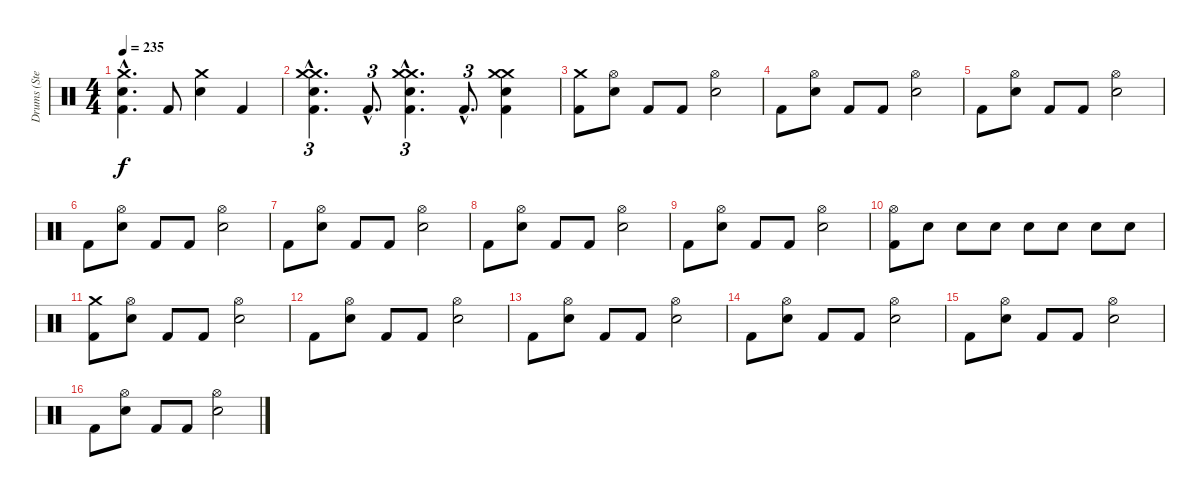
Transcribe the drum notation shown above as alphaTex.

\track ("Drums (Steve Jocz)" "Drums (Ste") {instrument percussion}
\staff {score}
\articulation defaults
\ts (4 4)
\tempo 235
\clef neutral
\ks c
("Crash medium (hit)"{hac} "Electric Snare (hit)"{hac} "Kick (hit) 2"{hac}).4{d dy f} "Kick (hit) 2".8 ("Crash medium (hit)" "Electric Snare (hit)").4 "Kick (hit) 2".4 |
("Crash medium (hit)"{hac} "Crash medium (hit)"{hac} "Electric Snare (hit)"{hac} "Kick (hit) 2"{hac}).4{d tu (3 2)} "Kick (hit) 2"{hac}.8{d tu (3 2)} ("Crash medium (hit)"{hac} "Crash medium (hit)"{hac} "Electric Snare (hit)"{hac} "Kick (hit) 2"{hac}).4{d tu (3 2)} "Kick (hit) 2"{hac}.8{d tu (3 2)} ("Crash medium (hit)" "Crash medium (hit)" "Electric Snare (hit)" "Kick (hit) 2").4 |
("Crash medium (hit)" "Kick (hit) 2").8 ("Hi-Hat (open)" "Electric Snare (hit)").8 "Kick (hit) 2".8 "Kick (hit) 2".8 ("Hi-Hat (open)" "Electric Snare (hit)").2 |
"Kick (hit) 2".8 ("Hi-Hat (open)" "Electric Snare (hit)").8 "Kick (hit) 2".8 "Kick (hit) 2".8 ("Hi-Hat (open)" "Electric Snare (hit)").2 |
"Kick (hit) 2".8 ("Hi-Hat (open)" "Electric Snare (hit)").8 "Kick (hit) 2".8 "Kick (hit) 2".8 ("Hi-Hat (open)" "Electric Snare (hit)").2 |
"Kick (hit) 2".8 ("Hi-Hat (open)" "Electric Snare (hit)").8 "Kick (hit) 2".8 "Kick (hit) 2".8 ("Hi-Hat (open)" "Electric Snare (hit)").2 |
"Kick (hit) 2".8 ("Hi-Hat (open)" "Electric Snare (hit)").8 "Kick (hit) 2".8 "Kick (hit) 2".8 ("Hi-Hat (open)" "Electric Snare (hit)").2 |
"Kick (hit) 2".8 ("Hi-Hat (open)" "Electric Snare (hit)").8 "Kick (hit) 2".8 "Kick (hit) 2".8 ("Hi-Hat (open)" "Electric Snare (hit)").2 |
"Kick (hit) 2".8 ("Hi-Hat (open)" "Electric Snare (hit)").8 "Kick (hit) 2".8 "Kick (hit) 2".8 ("Hi-Hat (open)" "Electric Snare (hit)").2 |
("Hi-Hat (open)" "Kick (hit) 2").8 "Electric Snare (hit)".8 "Electric Snare (hit)".8 "Electric Snare (hit)".8 "Electric Snare (hit)".8 "Electric Snare (hit)".8 "Electric Snare (hit)".8 "Electric Snare (hit)".8 |
("Crash medium (hit)" "Kick (hit) 2").8 ("Hi-Hat (open)" "Electric Snare (hit)").8 "Kick (hit) 2".8 "Kick (hit) 2".8 ("Hi-Hat (open)" "Electric Snare (hit)").2 |
"Kick (hit) 2".8 ("Hi-Hat (open)" "Electric Snare (hit)").8 "Kick (hit) 2".8 "Kick (hit) 2".8 ("Hi-Hat (open)" "Electric Snare (hit)").2 |
"Kick (hit) 2".8 ("Hi-Hat (open)" "Electric Snare (hit)").8 "Kick (hit) 2".8 "Kick (hit) 2".8 ("Hi-Hat (open)" "Electric Snare (hit)").2 |
"Kick (hit) 2".8 ("Hi-Hat (open)" "Electric Snare (hit)").8 "Kick (hit) 2".8 "Kick (hit) 2".8 ("Hi-Hat (open)" "Electric Snare (hit)").2 |
"Kick (hit) 2".8 ("Hi-Hat (open)" "Electric Snare (hit)").8 "Kick (hit) 2".8 "Kick (hit) 2".8 ("Hi-Hat (open)" "Electric Snare (hit)").2 |
"Kick (hit) 2".8 ("Hi-Hat (open)" "Electric Snare (hit)").8 "Kick (hit) 2".8 "Kick (hit) 2".8 ("Hi-Hat (open)" "Electric Snare (hit)").2
